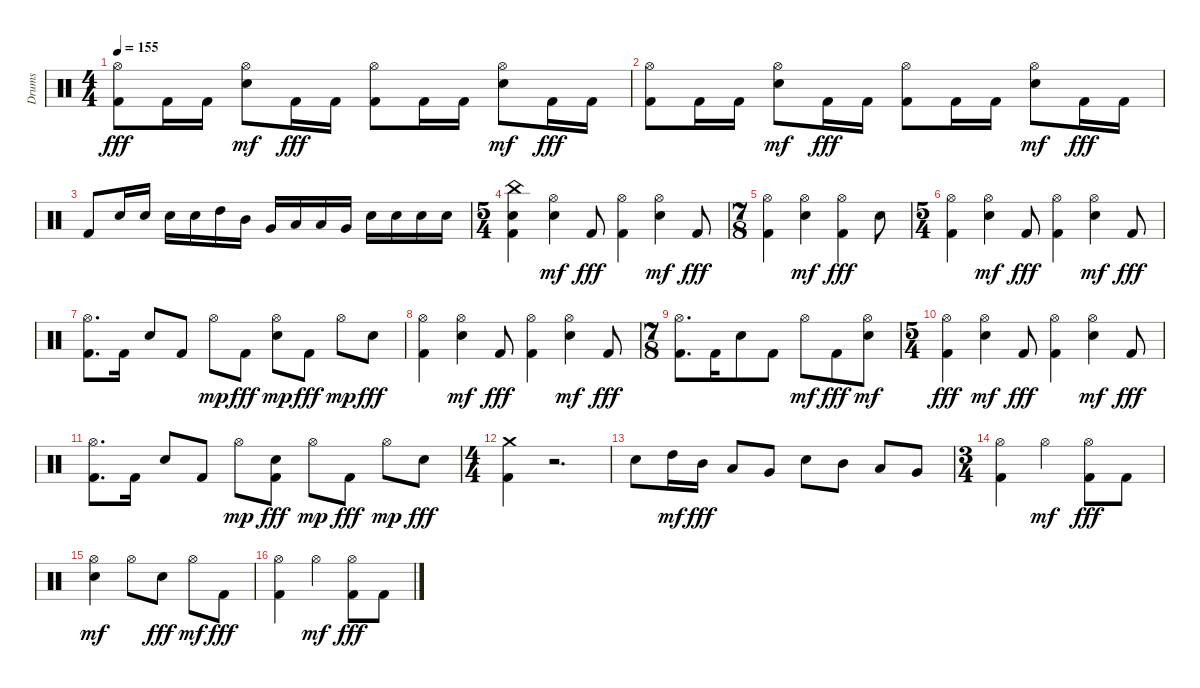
\track ("Drums" "Drums") {instrument percussion}
\staff {score}
\articulation defaults
\ts (4 4)
\tempo 155
\clef neutral
\ks c
("Hi-Hat (open)" "Kick (hit) 2").8{dy fff} "Kick (hit) 2".16 "Kick (hit) 2".16 ("Electric Snare (hit)" "Hi-Hat (open)").8{dy mf} "Kick (hit) 2".16{dy fff} "Kick (hit) 2".16 ("Hi-Hat (open)" "Kick (hit) 2").8 "Kick (hit) 2".16 "Kick (hit) 2".16 ("Electric Snare (hit)" "Hi-Hat (open)").8{dy mf} "Kick (hit) 2".16{dy fff} "Kick (hit) 2".16 |
("Hi-Hat (open)" "Kick (hit) 2").8 "Kick (hit) 2".16 "Kick (hit) 2".16 ("Electric Snare (hit)" "Hi-Hat (open)").8{dy mf} "Kick (hit) 2".16{dy fff} "Kick (hit) 2".16 ("Hi-Hat (open)" "Kick (hit) 2").8 "Kick (hit) 2".16 "Kick (hit) 2".16 ("Electric Snare (hit)" "Hi-Hat (open)").8{dy mf} "Kick (hit) 2".16{dy fff} "Kick (hit) 2".16 |
"Kick (hit) 2".8 "Electric Snare (hit)".16 "Electric Snare (hit)".16 "Electric Snare (hit)".16 "Electric Snare (hit)".16 "High Tom (hit)".16 "Mid Tom (hit)".16 "Very Low Tom (hit)".16 "Low Floor Tom (hit)".16 "Low Tom (hit)".16 "Very Low Tom (hit)".16 "Electric Snare (hit)".16 "Electric Snare (hit)".16 "Electric Snare (hit)".16 "Electric Snare (hit)".16 |
\ts (5 4)
("Electric Snare (hit)" "China (hit)" "Kick (hit) 2").4 ("Electric Snare (hit)" "Hi-Hat (open)").4{dy mf} "Kick (hit) 2".8{dy fff} ("Hi-Hat (open)" "Kick (hit) 2").4 ("Electric Snare (hit)" "Hi-Hat (open)").4{dy mf} "Kick (hit) 2".8{dy fff} |
\ts (7 8)
("Hi-Hat (open)" "Kick (hit) 2").4 ("Electric Snare (hit)" "Hi-Hat (open)").4{dy mf} ("Hi-Hat (open)" "Kick (hit) 2").4{dy fff} "Electric Snare (hit)".8 |
\ts (5 4)
("Hi-Hat (open)" "Kick (hit) 2").4 ("Electric Snare (hit)" "Hi-Hat (open)").4{dy mf} "Kick (hit) 2".8{dy fff} ("Hi-Hat (open)" "Kick (hit) 2").4 ("Electric Snare (hit)" "Hi-Hat (open)").4{dy mf} "Kick (hit) 2".8{dy fff} |
("Hi-Hat (open)" "Kick (hit) 2").8{d} "Kick (hit) 2".16 "Electric Snare (hit)".8 "Kick (hit) 2".8 "Hi-Hat (open)".8{dy mp} "Kick (hit) 2".8{dy fff} ("Electric Snare (hit)" "Hi-Hat (open)").8{dy mp} "Kick (hit) 2".8{dy fff} "Hi-Hat (open)".8{dy mp} "Electric Snare (hit)".8{dy fff} |
("Hi-Hat (open)" "Kick (hit) 2").4 ("Electric Snare (hit)" "Hi-Hat (open)").4{dy mf} "Kick (hit) 2".8{dy fff} ("Hi-Hat (open)" "Kick (hit) 2").4 ("Electric Snare (hit)" "Hi-Hat (open)").4{dy mf} "Kick (hit) 2".8{dy fff} |
\ts (7 8)
("Hi-Hat (open)" "Kick (hit) 2").8{d} "Kick (hit) 2".16 "Electric Snare (hit)".8 "Kick (hit) 2".8 "Hi-Hat (open)".8{dy mf} "Kick (hit) 2".8{dy fff} ("Electric Snare (hit)" "Hi-Hat (open)").8{dy mf} |
\ts (5 4)
("Hi-Hat (open)" "Kick (hit) 2").4{dy fff} ("Electric Snare (hit)" "Hi-Hat (open)").4{dy mf} "Kick (hit) 2".8{dy fff} ("Hi-Hat (open)" "Kick (hit) 2").4 ("Electric Snare (hit)" "Hi-Hat (open)").4{dy mf} "Kick (hit) 2".8{dy fff} |
("Hi-Hat (open)" "Kick (hit) 2").8{d} "Kick (hit) 2".16 "Electric Snare (hit)".8 "Kick (hit) 2".8 "Hi-Hat (open)".8{dy mp} ("Electric Snare (hit)" "Kick (hit) 2").8{dy fff} "Hi-Hat (open)".8{dy mp} "Kick (hit) 2".8{dy fff} "Hi-Hat (open)".8{dy mp} "Electric Snare (hit)".8{dy fff} |
\ts (4 4)
("Crash medium (hit)" "Kick (hit) 2").4 r.2{d} |
"Electric Snare (hit)".8 "High Tom (hit)".16{dy mf} "Mid Tom (hit)".16{dy fff} "Low Tom (hit)".8 "Very Low Tom (hit)".8 "Electric Snare (hit)".8 "Mid Tom (hit)".8 "Low Tom (hit)".8 "Very Low Tom (hit)".8 |
\ts (3 4)
("Hi-Hat (open)" "Kick (hit) 2").4 "Hi-Hat (open)".4{dy mf} ("Hi-Hat (open)" "Kick (hit) 2").8{dy fff} "Kick (hit) 2".8 |
("Electric Snare (hit)" "Hi-Hat (open)").4{dy mf} "Hi-Hat (open)".8 "Electric Snare (hit)".8{dy fff} "Hi-Hat (open)".8{dy mf} "Kick (hit) 2".8{dy fff} |
("Hi-Hat (open)" "Kick (hit) 2").4 "Hi-Hat (open)".4{dy mf} ("Hi-Hat (open)" "Kick (hit) 2").8{dy fff} "Kick (hit) 2".8
